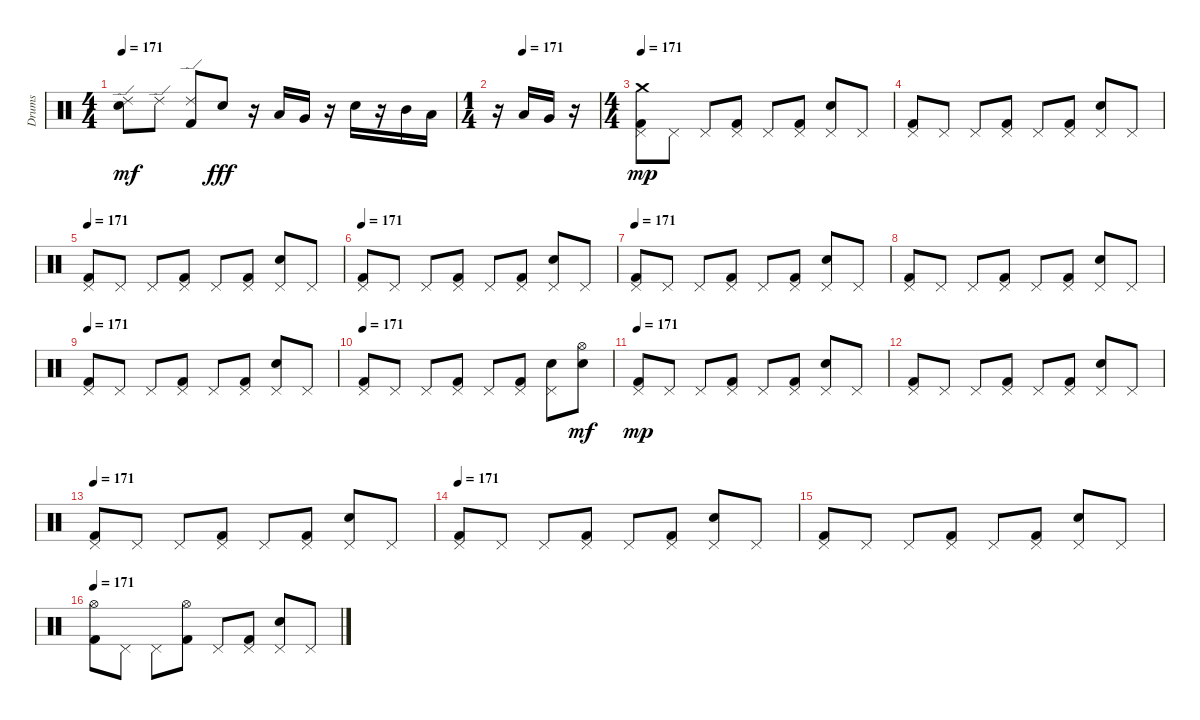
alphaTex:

\track ("Drums" "Drums") {instrument percussion}
\staff {score}
\articulation defaults
\ts (4 4)
\tempo 171
\clef neutral
\ks c
("Electric Snare (hit)" "Ride (edge) 2").8{dy mf} "Ride (edge) 2".8 ("Kick (hit) 2" "Ride (edge) 2").8 "Electric Snare (hit)".8{dy fff} r.16 "Low Tom (hit)".16 "Very Low Tom (hit)".16 r.16 "Electric Snare (hit)".16 r.16 "Mid Tom (hit)".16 "Low Tom (hit)".16 |
\ts (1 4)
\tempo (171 0.25)
r.16 "Low Tom (hit)".16 "Very Low Tom (hit)".16 r.16 |
\ts (4 4)
\tempo 171
("Kick (hit) 2" "Pedal Hi-Hat (hit)" "Crash medium (hit)").8{dy mp} "Pedal Hi-Hat (hit)".8 "Pedal Hi-Hat (hit)".8 ("Kick (hit) 2" "Pedal Hi-Hat (hit)").8 "Pedal Hi-Hat (hit)".8 ("Kick (hit) 2" "Pedal Hi-Hat (hit)").8 ("Electric Snare (hit)" "Pedal Hi-Hat (hit)").8 "Pedal Hi-Hat (hit)".8 |
("Kick (hit) 2" "Pedal Hi-Hat (hit)").8 "Pedal Hi-Hat (hit)".8 "Pedal Hi-Hat (hit)".8 ("Kick (hit) 2" "Pedal Hi-Hat (hit)").8 "Pedal Hi-Hat (hit)".8 ("Kick (hit) 2" "Pedal Hi-Hat (hit)").8 ("Electric Snare (hit)" "Pedal Hi-Hat (hit)").8 "Pedal Hi-Hat (hit)".8 |
\tempo 171
("Kick (hit) 2" "Pedal Hi-Hat (hit)").8 "Pedal Hi-Hat (hit)".8 "Pedal Hi-Hat (hit)".8 ("Kick (hit) 2" "Pedal Hi-Hat (hit)").8 "Pedal Hi-Hat (hit)".8 ("Kick (hit) 2" "Pedal Hi-Hat (hit)").8 ("Electric Snare (hit)" "Pedal Hi-Hat (hit)").8 "Pedal Hi-Hat (hit)".8 |
\tempo 171
("Kick (hit) 2" "Pedal Hi-Hat (hit)").8 "Pedal Hi-Hat (hit)".8 "Pedal Hi-Hat (hit)".8 ("Kick (hit) 2" "Pedal Hi-Hat (hit)").8 "Pedal Hi-Hat (hit)".8 ("Kick (hit) 2" "Pedal Hi-Hat (hit)").8 ("Electric Snare (hit)" "Pedal Hi-Hat (hit)").8 "Pedal Hi-Hat (hit)".8 |
\tempo 171
("Kick (hit) 2" "Pedal Hi-Hat (hit)").8 "Pedal Hi-Hat (hit)".8 "Pedal Hi-Hat (hit)".8 ("Kick (hit) 2" "Pedal Hi-Hat (hit)").8 "Pedal Hi-Hat (hit)".8 ("Kick (hit) 2" "Pedal Hi-Hat (hit)").8 ("Electric Snare (hit)" "Pedal Hi-Hat (hit)").8 "Pedal Hi-Hat (hit)".8 |
("Kick (hit) 2" "Pedal Hi-Hat (hit)").8 "Pedal Hi-Hat (hit)".8 "Pedal Hi-Hat (hit)".8 ("Kick (hit) 2" "Pedal Hi-Hat (hit)").8 "Pedal Hi-Hat (hit)".8 ("Kick (hit) 2" "Pedal Hi-Hat (hit)").8 ("Electric Snare (hit)" "Pedal Hi-Hat (hit)").8 "Pedal Hi-Hat (hit)".8 |
\tempo 171
("Kick (hit) 2" "Pedal Hi-Hat (hit)").8 "Pedal Hi-Hat (hit)".8 "Pedal Hi-Hat (hit)".8 ("Kick (hit) 2" "Pedal Hi-Hat (hit)").8 "Pedal Hi-Hat (hit)".8 ("Kick (hit) 2" "Pedal Hi-Hat (hit)").8 ("Electric Snare (hit)" "Pedal Hi-Hat (hit)").8 "Pedal Hi-Hat (hit)".8 |
\tempo 171
("Kick (hit) 2" "Pedal Hi-Hat (hit)").8 "Pedal Hi-Hat (hit)".8 "Pedal Hi-Hat (hit)".8 ("Kick (hit) 2" "Pedal Hi-Hat (hit)").8 "Pedal Hi-Hat (hit)".8 ("Kick (hit) 2" "Pedal Hi-Hat (hit)").8 ("Electric Snare (hit)" "Pedal Hi-Hat (hit)").8 ("Electric Snare (hit)" "Hi-Hat (open)").8{dy mf} |
\tempo 171
("Kick (hit) 2" "Pedal Hi-Hat (hit)").8{dy mp} "Pedal Hi-Hat (hit)".8 "Pedal Hi-Hat (hit)".8 ("Kick (hit) 2" "Pedal Hi-Hat (hit)").8 "Pedal Hi-Hat (hit)".8 ("Kick (hit) 2" "Pedal Hi-Hat (hit)").8 ("Electric Snare (hit)" "Pedal Hi-Hat (hit)").8 "Pedal Hi-Hat (hit)".8 |
("Kick (hit) 2" "Pedal Hi-Hat (hit)").8 "Pedal Hi-Hat (hit)".8 "Pedal Hi-Hat (hit)".8 ("Kick (hit) 2" "Pedal Hi-Hat (hit)").8 "Pedal Hi-Hat (hit)".8 ("Kick (hit) 2" "Pedal Hi-Hat (hit)").8 ("Electric Snare (hit)" "Pedal Hi-Hat (hit)").8 "Pedal Hi-Hat (hit)".8 |
\tempo 171
("Kick (hit) 2" "Pedal Hi-Hat (hit)").8 "Pedal Hi-Hat (hit)".8 "Pedal Hi-Hat (hit)".8 ("Kick (hit) 2" "Pedal Hi-Hat (hit)").8 "Pedal Hi-Hat (hit)".8 ("Kick (hit) 2" "Pedal Hi-Hat (hit)").8 ("Electric Snare (hit)" "Pedal Hi-Hat (hit)").8 "Pedal Hi-Hat (hit)".8 |
\tempo 171
("Kick (hit) 2" "Pedal Hi-Hat (hit)").8 "Pedal Hi-Hat (hit)".8 "Pedal Hi-Hat (hit)".8 ("Kick (hit) 2" "Pedal Hi-Hat (hit)").8 "Pedal Hi-Hat (hit)".8 ("Kick (hit) 2" "Pedal Hi-Hat (hit)").8 ("Electric Snare (hit)" "Pedal Hi-Hat (hit)").8 "Pedal Hi-Hat (hit)".8 |
("Kick (hit) 2" "Pedal Hi-Hat (hit)").8 "Pedal Hi-Hat (hit)".8 "Pedal Hi-Hat (hit)".8 ("Kick (hit) 2" "Pedal Hi-Hat (hit)").8 "Pedal Hi-Hat (hit)".8 ("Kick (hit) 2" "Pedal Hi-Hat (hit)").8 ("Electric Snare (hit)" "Pedal Hi-Hat (hit)").8 "Pedal Hi-Hat (hit)".8 |
\tempo 171
("Kick (hit) 2" "Hi-Hat (open)").8 "Pedal Hi-Hat (hit)".8 "Pedal Hi-Hat (hit)".8 ("Kick (hit) 2" "Hi-Hat (open)").8 "Pedal Hi-Hat (hit)".8 ("Kick (hit) 2" "Pedal Hi-Hat (hit)").8 ("Electric Snare (hit)" "Pedal Hi-Hat (hit)").8 "Pedal Hi-Hat (hit)".8
